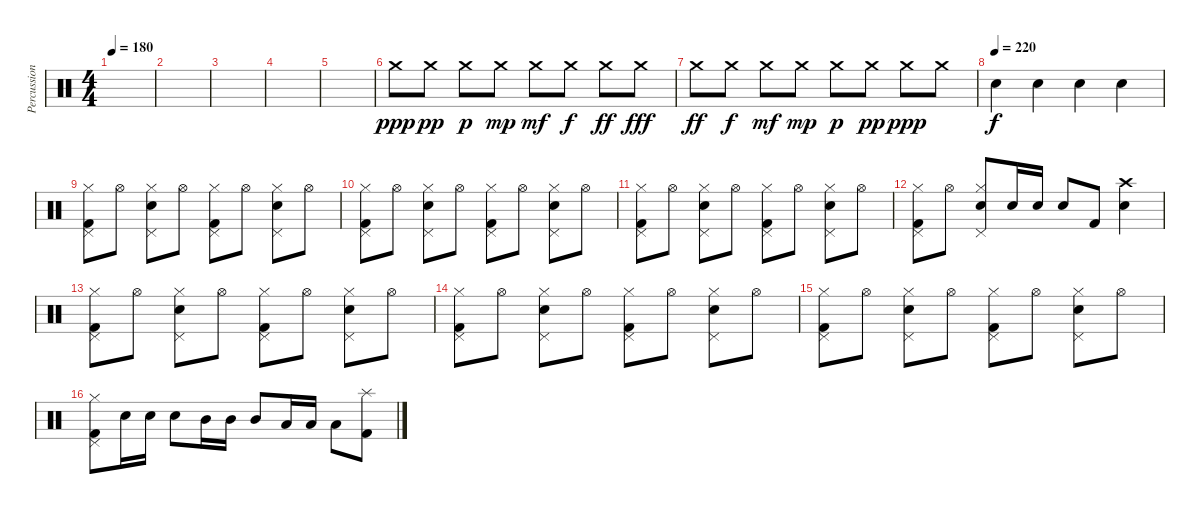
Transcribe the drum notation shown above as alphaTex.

\track ("Percussion" "Percussion") {instrument percussion}
\staff {score}
\articulation defaults
\ts (4 4)
\tempo 180
\clef neutral
\ks c
|
|
|
|
|
"Crash medium (hit)".8{dy ppp volume 8} "Crash medium (hit)".8{dy pp} "Crash medium (hit)".8{dy p} "Crash medium (hit)".8{dy mp} "Crash medium (hit)".8{dy mf} "Crash medium (hit)".8{dy f} "Crash medium (hit)".8{dy ff} "Crash medium (hit)".8{dy fff} |
"Crash medium (hit)".8{dy ff} "Crash medium (hit)".8{dy f} "Crash medium (hit)".8{dy mf} "Crash medium (hit)".8{dy mp} "Crash medium (hit)".8{dy p} "Crash medium (hit)".8{dy pp} "Crash medium (hit)".8{dy ppp} "Crash medium (hit)".8 |
\tempo (220)
"Electric Snare (hit)".4{dy f volume 13} "Electric Snare (hit)".4 "Electric Snare (hit)".4 "Electric Snare (hit)".4 |
("Hi-Hat (closed)" "Pedal Hi-Hat (hit)" "Kick (hit) 2").8 "Hi-Hat (open)".8 ("Hi-Hat (closed)" "Pedal Hi-Hat (hit)" "Electric Snare (hit)").8 "Hi-Hat (open)".8 ("Hi-Hat (closed)" "Pedal Hi-Hat (hit)" "Kick (hit) 2").8 "Hi-Hat (open)".8 ("Hi-Hat (closed)" "Pedal Hi-Hat (hit)" "Electric Snare (hit)").8 "Hi-Hat (open)".8 |
("Hi-Hat (closed)" "Pedal Hi-Hat (hit)" "Kick (hit) 2").8 "Hi-Hat (open)".8 ("Hi-Hat (closed)" "Pedal Hi-Hat (hit)" "Electric Snare (hit)").8 "Hi-Hat (open)".8 ("Hi-Hat (closed)" "Pedal Hi-Hat (hit)" "Kick (hit) 2").8 "Hi-Hat (open)".8 ("Hi-Hat (closed)" "Pedal Hi-Hat (hit)" "Electric Snare (hit)").8 "Hi-Hat (open)".8 |
("Hi-Hat (closed)" "Pedal Hi-Hat (hit)" "Kick (hit) 2").8 "Hi-Hat (open)".8 ("Hi-Hat (closed)" "Pedal Hi-Hat (hit)" "Electric Snare (hit)").8 "Hi-Hat (open)".8 ("Hi-Hat (closed)" "Pedal Hi-Hat (hit)" "Kick (hit) 2").8 "Hi-Hat (open)".8 ("Hi-Hat (closed)" "Pedal Hi-Hat (hit)" "Electric Snare (hit)").8 "Hi-Hat (open)".8 |
("Hi-Hat (closed)" "Pedal Hi-Hat (hit)" "Kick (hit) 2").8 "Hi-Hat (open)".8 ("Hi-Hat (closed)" "Pedal Hi-Hat (hit)" "Electric Snare (hit)").8 "Electric Snare (hit)".16 "Electric Snare (hit)".16 "Electric Snare (hit)".8 "Kick (hit) 2".8 ("Crash high (hit)" "Electric Snare (hit)").4 |
("Hi-Hat (closed)" "Pedal Hi-Hat (hit)" "Kick (hit) 2").8 "Hi-Hat (open)".8 ("Hi-Hat (closed)" "Pedal Hi-Hat (hit)" "Electric Snare (hit)").8 "Hi-Hat (open)".8 ("Hi-Hat (closed)" "Pedal Hi-Hat (hit)" "Kick (hit) 2").8 "Hi-Hat (open)".8 ("Hi-Hat (closed)" "Pedal Hi-Hat (hit)" "Electric Snare (hit)").8 "Hi-Hat (open)".8 |
("Hi-Hat (closed)" "Pedal Hi-Hat (hit)" "Kick (hit) 2").8 "Hi-Hat (open)".8 ("Hi-Hat (closed)" "Pedal Hi-Hat (hit)" "Electric Snare (hit)").8 "Hi-Hat (open)".8 ("Hi-Hat (closed)" "Pedal Hi-Hat (hit)" "Kick (hit) 2").8 "Hi-Hat (open)".8 ("Hi-Hat (closed)" "Pedal Hi-Hat (hit)" "Electric Snare (hit)").8 "Hi-Hat (open)".8 |
("Hi-Hat (closed)" "Pedal Hi-Hat (hit)" "Kick (hit) 2").8 "Hi-Hat (open)".8 ("Hi-Hat (closed)" "Pedal Hi-Hat (hit)" "Electric Snare (hit)").8 "Hi-Hat (open)".8 ("Hi-Hat (closed)" "Pedal Hi-Hat (hit)" "Kick (hit) 2").8 "Hi-Hat (open)".8 ("Hi-Hat (closed)" "Pedal Hi-Hat (hit)" "Electric Snare (hit)").8 "Hi-Hat (open)".8 |
("Hi-Hat (closed)" "Pedal Hi-Hat (hit)" "Kick (hit) 2").8 "Electric Snare (hit)".16 "Electric Snare (hit)".16 "Electric Snare (hit)".8 "Mid Tom (hit)".16 "Mid Tom (hit)".16 "Mid Tom (hit)".8 "Low Tom (hit)".16 "Low Tom (hit)".16 "Low Tom (hit)".8 ("Splash (hit)" "Kick (hit) 2").8
